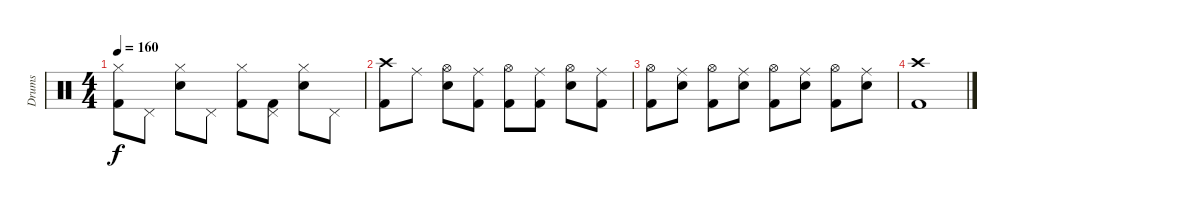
\track ("Drums" "Drums") {instrument percussion}
\staff {score}
\articulation defaults
\ts (4 4)
\tempo 160
\clef neutral
\ks c
("Kick (hit) 2" "Hi-Hat (closed)").8{dy f} "Pedal Hi-Hat (hit)".8 ("Electric Snare (hit)" "Hi-Hat (closed)").8 "Pedal Hi-Hat (hit)".8 ("Kick (hit) 2" "Hi-Hat (closed)").8 ("Kick (hit) 2" "Pedal Hi-Hat (hit)").8 ("Electric Snare (hit)" "Hi-Hat (closed)").8 "Pedal Hi-Hat (hit)".8 |
("Kick (hit) 2" "Crash high (hit)").8 "Ride (middle)".8 ("Electric Snare (hit)" "Hi-Hat (open)").8 ("Kick (hit) 2" "Ride (middle)").8 ("Kick (hit) 2" "Hi-Hat (open)").8 ("Kick (hit) 2" "Ride (middle)").8 ("Electric Snare (hit)" "Hi-Hat (open)").8 ("Kick (hit) 2" "Ride (middle)").8 |
("Kick (hit) 2" "Hi-Hat (open)").8 ("Electric Snare (hit)" "Ride (middle)").8 ("Kick (hit) 2" "Hi-Hat (open)").8 ("Electric Snare (hit)" "Ride (middle)").8 ("Kick (hit) 2" "Hi-Hat (open)").8 ("Electric Snare (hit)" "Ride (middle)").8 ("Kick (hit) 2" "Hi-Hat (open)").8 ("Electric Snare (hit)" "Ride (middle)").8 |
("Kick (hit) 2" "Crash high (hit)").1
